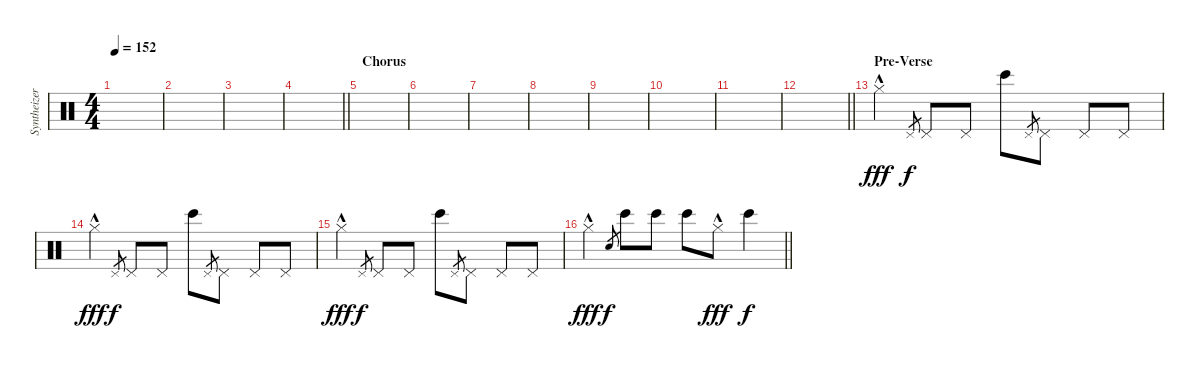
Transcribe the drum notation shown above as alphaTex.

\track ("Syntheizer" "Syntheizer") {instrument percussion}
\staff {score}
\articulation defaults
\ts (4 4)
\tempo 152
\clef neutral
\ks c
|
|
|
\barLineRight lightlight
|
\section ("" "Chorus")
|
|
|
|
|
|
|
\barLineRight lightlight
|
\section ("" "Pre-Verse")
"Hi-Hat (closed)"{hac}.4{dy fff} "Pedal Hi-Hat (hit)".8{gr dy f} "Pedal Hi-Hat (hit)".8 "Pedal Hi-Hat (hit)".8 "Bongo High (hit)".8 "Pedal Hi-Hat (hit)".8{gr} "Pedal Hi-Hat (hit)".8 "Pedal Hi-Hat (hit)".8 "Pedal Hi-Hat (hit)".8 |
"Hi-Hat (closed)"{hac}.4{dy fff} "Pedal Hi-Hat (hit)".8{gr dy f} "Pedal Hi-Hat (hit)".8 "Pedal Hi-Hat (hit)".8 "Bongo High (hit)".8 "Pedal Hi-Hat (hit)".8{gr} "Pedal Hi-Hat (hit)".8 "Pedal Hi-Hat (hit)".8 "Pedal Hi-Hat (hit)".8 |
"Hi-Hat (closed)"{hac}.4{dy fff} "Pedal Hi-Hat (hit)".8{gr dy f} "Pedal Hi-Hat (hit)".8 "Pedal Hi-Hat (hit)".8 "Bongo High (hit)".8 "Pedal Hi-Hat (hit)".8{gr} "Pedal Hi-Hat (hit)".8 "Pedal Hi-Hat (hit)".8 "Pedal Hi-Hat (hit)".8 |
\barLineRight lightlight "Hi-Hat (closed)"{hac}.4{dy fff} "Snare (hit)".8{gr dy f} "Bongo High (hit)".8 "Bongo High (hit)".8 "Bongo High (hit)".8 "Hi-Hat (closed)"{hac}.8{dy fff} "Bongo High (hit)".4{dy f}
